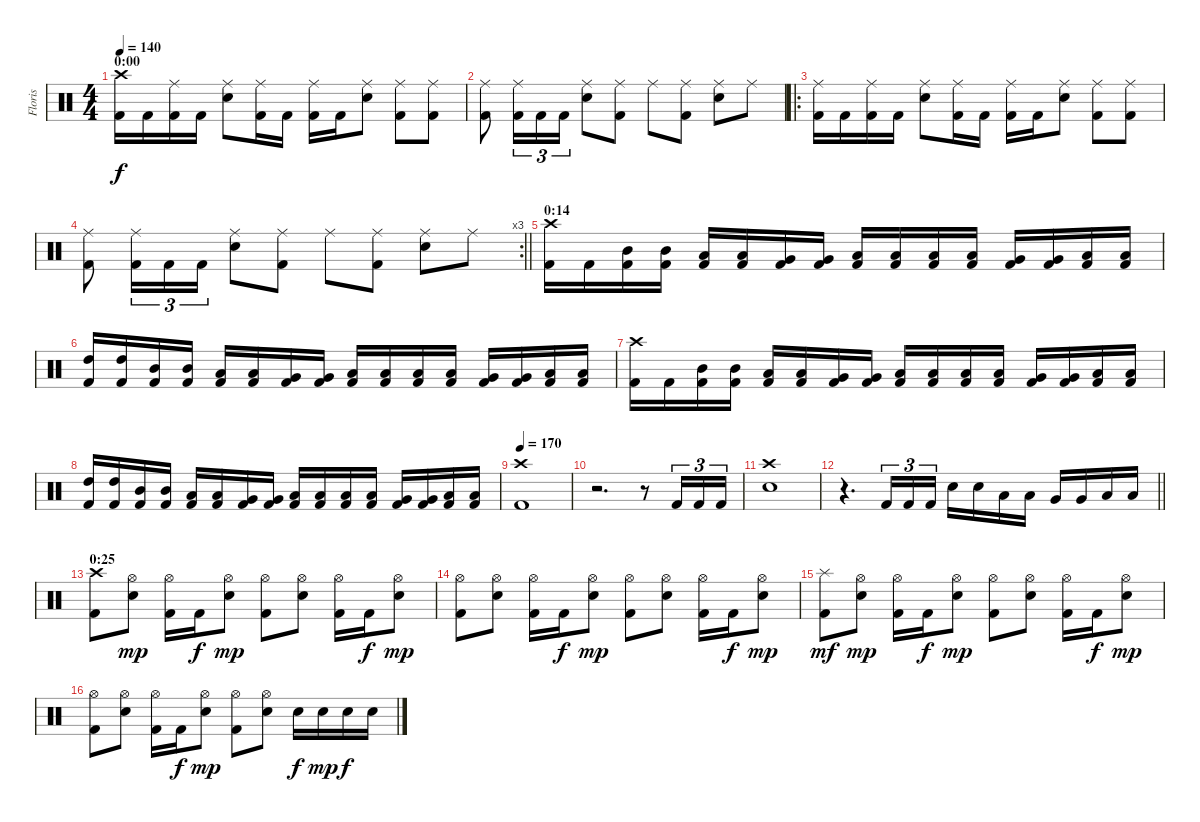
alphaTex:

\track ("Floris" "Floris") {instrument percussion}
\staff {score}
\articulation defaults
\ts (4 4)
\section ("" "0:00")
\tempo 140
\clef neutral
\ks c
("Crash high (hit)" "Kick (hit) 2").16{dy f} "Kick (hit) 2".16 ("Ride (middle)" "Kick (hit) 2").16 "Kick (hit) 2".16 ("Ride (middle)" "Electric Snare (hit)").8 ("Ride (middle)" "Kick (hit) 2").16 "Kick (hit) 2".16 ("Ride (middle)" "Kick (hit) 2").16 "Kick (hit) 2".16 ("Ride (middle)" "Electric Snare (hit)").8 ("Ride (middle)" "Kick (hit) 2").8 ("Ride (middle)" "Kick (hit) 2").8 |
("Ride (middle)" "Kick (hit) 2").8 ("Ride (middle)" "Kick (hit) 2").16{tu (3 2)} "Kick (hit) 2".16{tu (3 2)} "Kick (hit) 2".16{tu (3 2)} ("Ride (middle)" "Electric Snare (hit)").8 ("Ride (middle)" "Kick (hit) 2").8 "Ride (middle)".8 ("Ride (middle)" "Kick (hit) 2").8 ("Ride (middle)" "Electric Snare (hit)").8 "Ride (middle)".8 |
\ro
("Ride (middle)" "Kick (hit) 2").16 "Kick (hit) 2".16 ("Ride (middle)" "Kick (hit) 2").16 "Kick (hit) 2".16 ("Ride (middle)" "Electric Snare (hit)").8 ("Ride (middle)" "Kick (hit) 2").16 "Kick (hit) 2".16 ("Ride (middle)" "Kick (hit) 2").16 "Kick (hit) 2".16 ("Ride (middle)" "Electric Snare (hit)").8 ("Ride (middle)" "Kick (hit) 2").8 ("Ride (middle)" "Kick (hit) 2").8 |
\rc 3
\barLineRight lightlight
("Ride (middle)" "Kick (hit) 2").8 ("Ride (middle)" "Kick (hit) 2").16{tu (3 2)} "Kick (hit) 2".16{tu (3 2)} "Kick (hit) 2".16{tu (3 2)} ("Ride (middle)" "Electric Snare (hit)").8 ("Ride (middle)" "Kick (hit) 2").8 "Ride (middle)".8 ("Ride (middle)" "Kick (hit) 2").8 ("Ride (middle)" "Electric Snare (hit)").8 "Ride (middle)".8 |
\section ("" "0:14")
("Crash high (hit)" "Kick (hit) 2").16 "Kick (hit) 2".16 ("Mid Tom (hit)" "Kick (hit) 2").16 ("Mid Tom (hit)" "Kick (hit) 2").16 ("Low Tom (hit)" "Kick (hit) 2").16 ("Low Tom (hit)" "Kick (hit) 2").16 ("Very Low Tom (hit)" "Kick (hit) 2").16 ("Very Low Tom (hit)" "Kick (hit) 2").16 ("Low Floor Tom (hit)" "Kick (hit) 2").16 ("Low Floor Tom (hit)" "Kick (hit) 2").16 ("Low Tom (hit)" "Kick (hit) 2").16 ("Low Tom (hit)" "Kick (hit) 2").16 ("Very Low Tom (hit)" "Kick (hit) 2").16 ("Very Low Tom (hit)" "Kick (hit) 2").16 ("Low Floor Tom (hit)" "Kick (hit) 2").16 ("Low Floor Tom (hit)" "Kick (hit) 2").16 |
("High Tom (hit)" "Kick (hit) 2").16 ("High Tom (hit)" "Kick (hit) 2").16 ("Mid Tom (hit)" "Kick (hit) 2").16 ("Mid Tom (hit)" "Kick (hit) 2").16 ("Low Tom (hit)" "Kick (hit) 2").16 ("Low Tom (hit)" "Kick (hit) 2").16 ("Very Low Tom (hit)" "Kick (hit) 2").16 ("Very Low Tom (hit)" "Kick (hit) 2").16 ("Low Floor Tom (hit)" "Kick (hit) 2").16 ("Low Floor Tom (hit)" "Kick (hit) 2").16 ("Low Tom (hit)" "Kick (hit) 2").16 ("Low Tom (hit)" "Kick (hit) 2").16 ("Very Low Tom (hit)" "Kick (hit) 2").16 ("Very Low Tom (hit)" "Kick (hit) 2").16 ("Low Floor Tom (hit)" "Kick (hit) 2").16 ("Low Floor Tom (hit)" "Kick (hit) 2").16 |
("Crash high (hit)" "Kick (hit) 2").16 "Kick (hit) 2".16 ("Mid Tom (hit)" "Kick (hit) 2").16 ("Mid Tom (hit)" "Kick (hit) 2").16 ("Low Tom (hit)" "Kick (hit) 2").16 ("Low Tom (hit)" "Kick (hit) 2").16 ("Very Low Tom (hit)" "Kick (hit) 2").16 ("Very Low Tom (hit)" "Kick (hit) 2").16 ("Low Floor Tom (hit)" "Kick (hit) 2").16 ("Low Floor Tom (hit)" "Kick (hit) 2").16 ("Low Tom (hit)" "Kick (hit) 2").16 ("Low Tom (hit)" "Kick (hit) 2").16 ("Very Low Tom (hit)" "Kick (hit) 2").16 ("Very Low Tom (hit)" "Kick (hit) 2").16 ("Low Floor Tom (hit)" "Kick (hit) 2").16 ("Low Floor Tom (hit)" "Kick (hit) 2").16 |
("High Tom (hit)" "Kick (hit) 2").16 ("High Tom (hit)" "Kick (hit) 2").16 ("Mid Tom (hit)" "Kick (hit) 2").16 ("Mid Tom (hit)" "Kick (hit) 2").16 ("Low Tom (hit)" "Kick (hit) 2").16 ("Low Tom (hit)" "Kick (hit) 2").16 ("Very Low Tom (hit)" "Kick (hit) 2").16 ("Very Low Tom (hit)" "Kick (hit) 2").16 ("Low Floor Tom (hit)" "Kick (hit) 2").16 ("Low Floor Tom (hit)" "Kick (hit) 2").16 ("Low Tom (hit)" "Kick (hit) 2").16 ("Low Tom (hit)" "Kick (hit) 2").16 ("Very Low Tom (hit)" "Kick (hit) 2").16 ("Very Low Tom (hit)" "Kick (hit) 2").16 ("Low Floor Tom (hit)" "Kick (hit) 2").16 ("Low Floor Tom (hit)" "Kick (hit) 2").16 |
\tempo 170
("Crash high (hit)" "Kick (hit) 2").1 |
r.2{d} r.8 "Kick (hit) 2".16{tu (3 2)} "Kick (hit) 2".16{tu (3 2)} "Kick (hit) 2".16{tu (3 2)} |
("Crash high (hit)" "Electric Snare (hit)").1 |
\barLineRight lightlight
r.4{d} "Kick (hit) 2".16{tu (3 2)} "Kick (hit) 2".16{tu (3 2)} "Kick (hit) 2".16{tu (3 2)} "Electric Snare (hit)".16 "Electric Snare (hit)".16 "Low Tom (hit)".16 "Low Tom (hit)".16 "Very Low Tom (hit)".16 "Very Low Tom (hit)".16 "Low Floor Tom (hit)".16 "Low Floor Tom (hit)".16 |
\section ("" "0:25")
("Crash high (hit)" "Kick (hit) 2").8 ("Hi-Hat (open)" "Electric Snare (hit)").8{dy mp} ("Hi-Hat (open)" "Kick (hit) 2").16 "Kick (hit) 2".16{dy f} ("Hi-Hat (open)" "Electric Snare (hit)").8{dy mp} ("Hi-Hat (open)" "Kick (hit) 2").8 ("Hi-Hat (open)" "Electric Snare (hit)").8 ("Hi-Hat (open)" "Kick (hit) 2").16 "Kick (hit) 2".16{dy f} ("Hi-Hat (open)" "Electric Snare (hit)").8{dy mp} |
("Hi-Hat (open)" "Kick (hit) 2").8 ("Hi-Hat (open)" "Electric Snare (hit)").8 ("Hi-Hat (open)" "Kick (hit) 2").16 "Kick (hit) 2".16{dy f} ("Hi-Hat (open)" "Electric Snare (hit)").8{dy mp} ("Hi-Hat (open)" "Kick (hit) 2").8 ("Hi-Hat (open)" "Electric Snare (hit)").8 ("Hi-Hat (open)" "Kick (hit) 2").16 "Kick (hit) 2".16{dy f} ("Hi-Hat (open)" "Electric Snare (hit)").8{dy mp} |
("Splash (hit)" "Kick (hit) 2").8{dy mf} ("Hi-Hat (open)" "Electric Snare (hit)").8{dy mp} ("Hi-Hat (open)" "Kick (hit) 2").16 "Kick (hit) 2".16{dy f} ("Hi-Hat (open)" "Electric Snare (hit)").8{dy mp} ("Hi-Hat (open)" "Kick (hit) 2").8 ("Hi-Hat (open)" "Electric Snare (hit)").8 ("Hi-Hat (open)" "Kick (hit) 2").16 "Kick (hit) 2".16{dy f} ("Hi-Hat (open)" "Electric Snare (hit)").8{dy mp} |
("Hi-Hat (open)" "Kick (hit) 2").8 ("Hi-Hat (open)" "Electric Snare (hit)").8 ("Hi-Hat (open)" "Kick (hit) 2").16 "Kick (hit) 2".16{dy f} ("Hi-Hat (open)" "Electric Snare (hit)").8{dy mp} ("Hi-Hat (open)" "Kick (hit) 2").8 ("Hi-Hat (open)" "Electric Snare (hit)").8 "Electric Snare (hit)".16{dy f} "Electric Snare (hit)".16{dy mp} "Electric Snare (hit)".16{dy f} "Electric Snare (hit)".16
